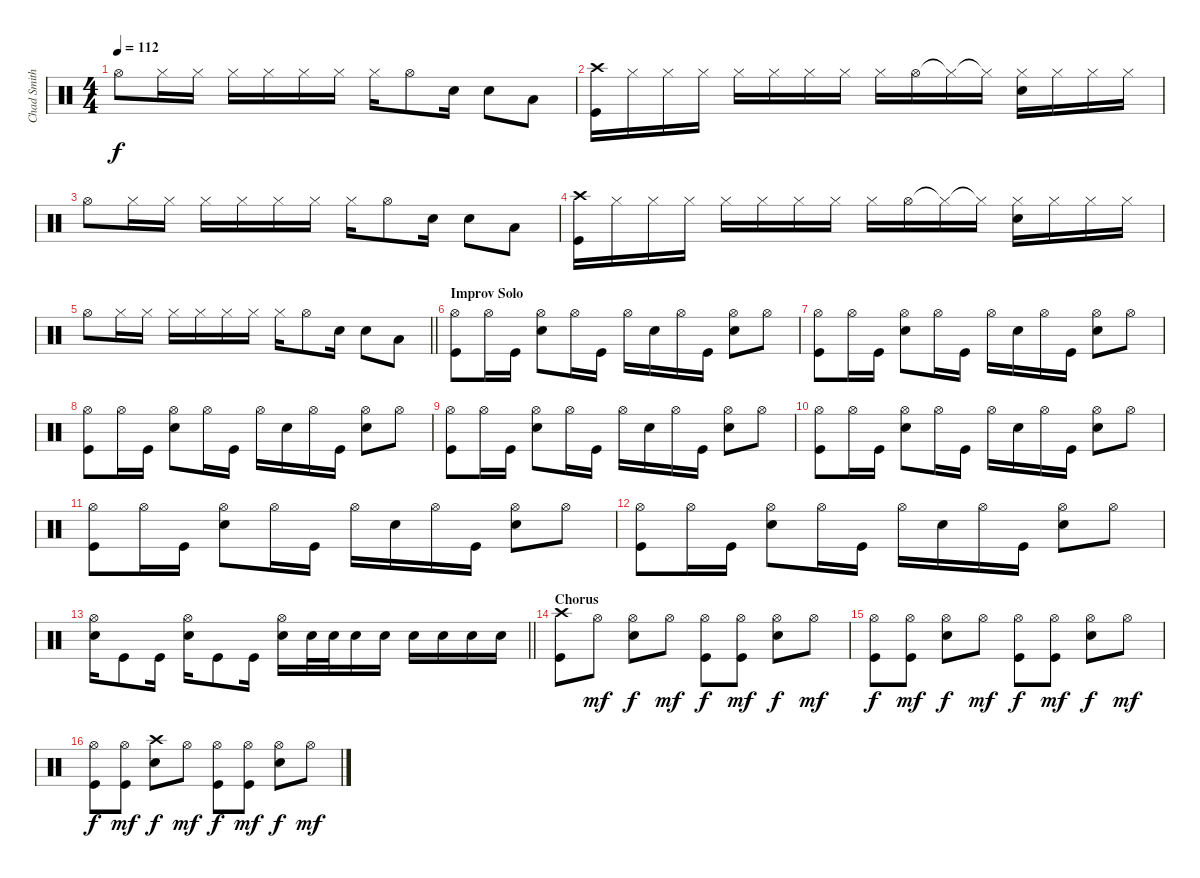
\track ("Chad Smith" "Chad Smith") {instrument percussion}
\staff {score}
\articulation defaults
\ts (4 4)
\tempo 112
\clef neutral
\ks c "Hi-Hat (open)".8{dy f} "Hi-Hat (closed)".16 "Hi-Hat (closed)".16 "Hi-Hat (closed)".16 "Hi-Hat (closed)".16 "Hi-Hat (closed)".16 "Hi-Hat (closed)".16 "Hi-Hat (closed)".16 "Hi-Hat (open)".8 "Snare (hit) 2".16 "Snare (hit) 2".8 "Low Tom (hit)".8
|
("Crash high (hit)" "Kick (hit)").16 "Hi-Hat (closed)".16 "Hi-Hat (closed)".16 "Hi-Hat (closed)".16 "Hi-Hat (closed)".16 "Hi-Hat (closed)".16 "Hi-Hat (closed)".16 "Hi-Hat (closed)".16 "Hi-Hat (closed)".16 "Hi-Hat (open)".16 "Hi-Hat (closed)"{t}.16 "Hi-Hat (closed)"{t}.16 ("Hi-Hat (closed)" "Snare (hit) 2").16 "Hi-Hat (closed)".16 "Hi-Hat (closed)".16 "Hi-Hat (closed)".16 |
"Hi-Hat (open)".8 "Hi-Hat (closed)".16 "Hi-Hat (closed)".16 "Hi-Hat (closed)".16 "Hi-Hat (closed)".16 "Hi-Hat (closed)".16 "Hi-Hat (closed)".16 "Hi-Hat (closed)".16 "Hi-Hat (open)".8 "Snare (hit) 2".16 "Snare (hit) 2".8 "Low Tom (hit)".8 |
("Crash high (hit)" "Kick (hit)").16 "Hi-Hat (closed)".16 "Hi-Hat (closed)".16 "Hi-Hat (closed)".16 "Hi-Hat (closed)".16 "Hi-Hat (closed)".16 "Hi-Hat (closed)".16 "Hi-Hat (closed)".16 "Hi-Hat (closed)".16 "Hi-Hat (open)".16 "Hi-Hat (closed)"{t}.16 "Hi-Hat (closed)"{t}.16 ("Hi-Hat (closed)" "Snare (hit) 2").16 "Hi-Hat (closed)".16 "Hi-Hat (closed)".16 "Hi-Hat (closed)".16 |
\barLineRight lightlight "Hi-Hat (open)".8 "Hi-Hat (closed)".16 "Hi-Hat (closed)".16 "Hi-Hat (closed)".16 "Hi-Hat (closed)".16 "Hi-Hat (closed)".16 "Hi-Hat (closed)".16 "Hi-Hat (closed)".16 "Hi-Hat (open)".8 "Snare (hit) 2".16 "Snare (hit) 2".8 "Low Tom (hit)".8
|
\section ("" "Improv Solo")
("Hi-Hat (open)" "Kick (hit)").8 "Hi-Hat (open)".16 "Kick (hit)".16 ("Hi-Hat (open)" "Snare (hit) 2").8 "Hi-Hat (open)".16 "Kick (hit)".16 "Hi-Hat (open)".16 "Snare (hit) 2".16 "Hi-Hat (open)".16 "Kick (hit)".16 ("Snare (hit) 2" "Hi-Hat (open)").8 "Hi-Hat (open)".8 |
("Hi-Hat (open)" "Kick (hit)").8 "Hi-Hat (open)".16 "Kick (hit)".16 ("Hi-Hat (open)" "Snare (hit) 2").8 "Hi-Hat (open)".16 "Kick (hit)".16 "Hi-Hat (open)".16 "Snare (hit) 2".16 "Hi-Hat (open)".16 "Kick (hit)".16 ("Snare (hit) 2" "Hi-Hat (open)").8 "Hi-Hat (open)".8 |
("Hi-Hat (open)" "Kick (hit)").8 "Hi-Hat (open)".16 "Kick (hit)".16 ("Hi-Hat (open)" "Snare (hit) 2").8 "Hi-Hat (open)".16 "Kick (hit)".16 "Hi-Hat (open)".16 "Snare (hit) 2".16 "Hi-Hat (open)".16 "Kick (hit)".16 ("Snare (hit) 2" "Hi-Hat (open)").8 "Hi-Hat (open)".8 |
("Hi-Hat (open)" "Kick (hit)").8 "Hi-Hat (open)".16 "Kick (hit)".16 ("Hi-Hat (open)" "Snare (hit) 2").8 "Hi-Hat (open)".16 "Kick (hit)".16 "Hi-Hat (open)".16 "Snare (hit) 2".16 "Hi-Hat (open)".16 "Kick (hit)".16 ("Snare (hit) 2" "Hi-Hat (open)").8 "Hi-Hat (open)".8 |
("Hi-Hat (open)" "Kick (hit)").8 "Hi-Hat (open)".16 "Kick (hit)".16 ("Hi-Hat (open)" "Snare (hit) 2").8 "Hi-Hat (open)".16 "Kick (hit)".16 "Hi-Hat (open)".16 "Snare (hit) 2".16 "Hi-Hat (open)".16 "Kick (hit)".16 ("Snare (hit) 2" "Hi-Hat (open)").8 "Hi-Hat (open)".8 |
("Hi-Hat (open)" "Kick (hit)").8 "Hi-Hat (open)".16 "Kick (hit)".16 ("Hi-Hat (open)" "Snare (hit) 2").8 "Hi-Hat (open)".16 "Kick (hit)".16 "Hi-Hat (open)".16 "Snare (hit) 2".16 "Hi-Hat (open)".16 "Kick (hit)".16 ("Snare (hit) 2" "Hi-Hat (open)").8 "Hi-Hat (open)".8 |
("Hi-Hat (open)" "Kick (hit)").8 "Hi-Hat (open)".16 "Kick (hit)".16 ("Hi-Hat (open)" "Snare (hit) 2").8 "Hi-Hat (open)".16 "Kick (hit)".16 "Hi-Hat (open)".16 "Snare (hit) 2".16 "Hi-Hat (open)".16 "Kick (hit)".16 ("Snare (hit) 2" "Hi-Hat (open)").8 "Hi-Hat (open)".8 |
\barLineRight lightlight
("Hi-Hat (open)" "Snare (hit) 2").16 "Kick (hit)".8 "Kick (hit)".16 ("Hi-Hat (open)" "Snare (hit) 2").16 "Kick (hit)".8 "Kick (hit)".16 ("Hi-Hat (open)" "Snare (hit) 2").16 "Snare (hit) 2".32 "Snare (hit) 2".32 "Snare (hit) 2".16 "Snare (hit) 2".16 "Snare (hit) 2".16 "Snare (hit) 2".16 "Snare (hit) 2".16 "Snare (hit) 2".16 |
\section ("" "Chorus")
("Crash high (hit)" "Kick (hit)").8 "Hi-Hat (open)".8{dy mf} ("Hi-Hat (open)" "Snare (hit) 2").8{dy f} "Hi-Hat (open)".8{dy mf} ("Kick (hit)" "Hi-Hat (open)").8{dy f} ("Kick (hit)" "Hi-Hat (open)").8{dy mf} ("Snare (hit) 2" "Hi-Hat (open)").8{dy f} "Hi-Hat (open)".8{dy mf} |
("Hi-Hat (open)" "Kick (hit)").8{dy f} ("Hi-Hat (open)" "Kick (hit)").8{dy mf} ("Hi-Hat (open)" "Snare (hit) 2").8{dy f} "Hi-Hat (open)".8{dy mf} ("Kick (hit)" "Hi-Hat (open)").8{dy f} ("Kick (hit)" "Hi-Hat (open)").8{dy mf} ("Snare (hit) 2" "Hi-Hat (open)").8{dy f} "Hi-Hat (open)".8{dy mf} |
("Hi-Hat (open)" "Kick (hit)").8{dy f} ("Hi-Hat (open)" "Kick (hit)").8{dy mf} ("Crash high (hit)" "Snare (hit) 2").8{dy f} "Hi-Hat (open)".8{dy mf} ("Kick (hit)" "Hi-Hat (open)").8{dy f} ("Kick (hit)" "Hi-Hat (open)").8{dy mf} ("Snare (hit) 2" "Hi-Hat (open)").8{dy f} "Hi-Hat (open)".8{dy mf}
